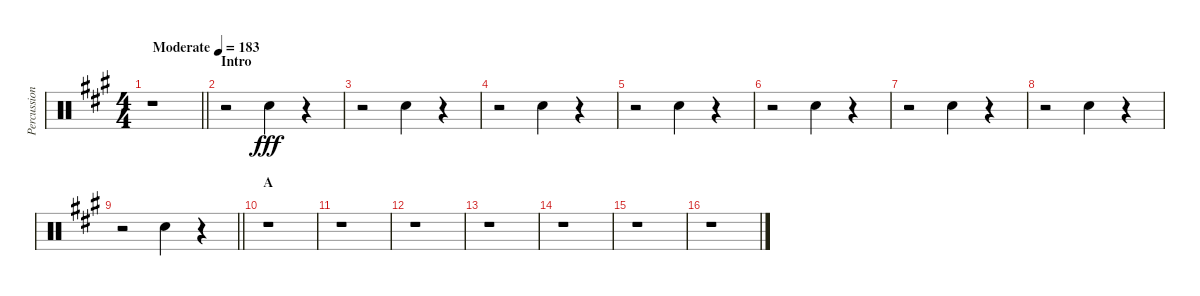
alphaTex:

\track ("Percussion" "Percussion") {instrument percussion}
\staff {score}
\articulation defaults
\ts (4 4)
\tempo (183 "Moderate")
\clef neutral
\barLineRight lightlight
\ks a
r.1{dy fff} |
\section ("" "Intro")
r.2 "Hand Clap (hit)".4 r.4 |
r.2 "Hand Clap (hit)".4 r.4 |
r.2 "Hand Clap (hit)".4 r.4 |
r.2 "Hand Clap (hit)".4 r.4 |
r.2 "Hand Clap (hit)".4 r.4 |
r.2 "Hand Clap (hit)".4 r.4 |
r.2 "Hand Clap (hit)".4 r.4 |
\barLineRight lightlight
r.2 "Hand Clap (hit)".4 r.4 |
\section ("" "A")
r.1 |
r.1 |
r.1 |
r.1 |
r.1 |
r.1 |
r.1
